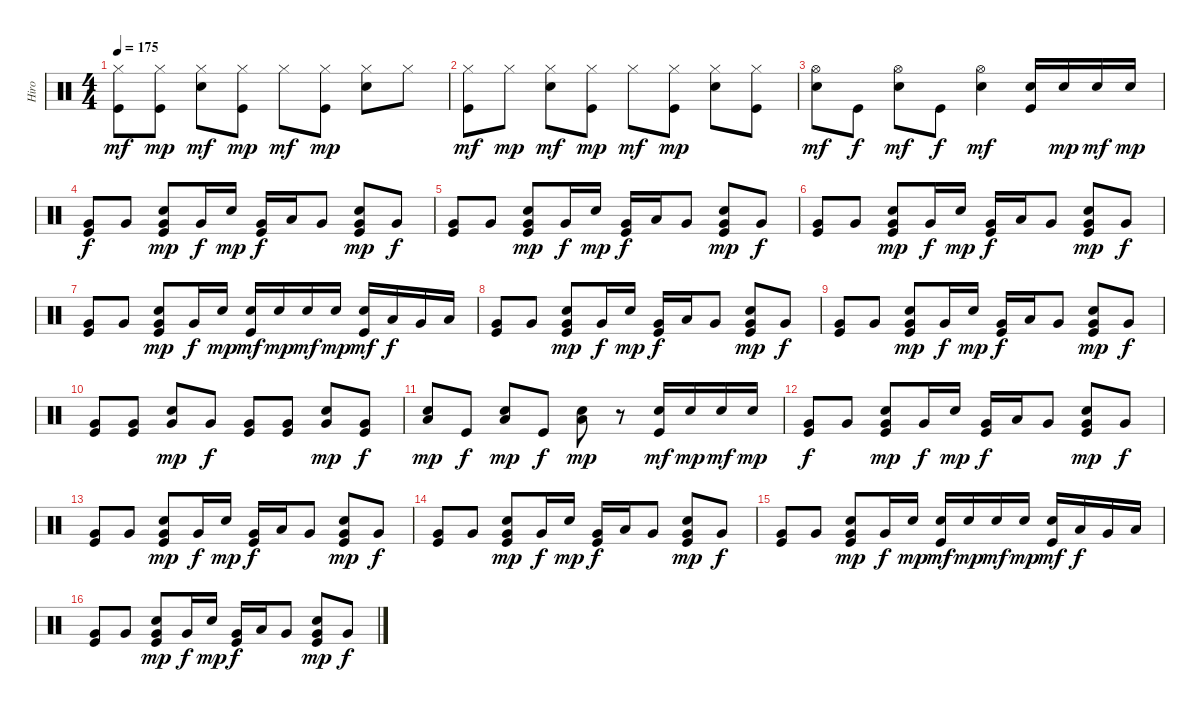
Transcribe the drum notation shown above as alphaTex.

\track ("Hiro" "Hiro") {instrument percussion}
\staff {score}
\articulation defaults
\ts (4 4)
\tempo 175
\clef neutral
\ks c
("Hi-Hat (closed)" "Kick (hit)").8{dy mf} ("Hi-Hat (closed)" "Kick (hit)").8{dy mp} ("Hi-Hat (closed)" "Electric Snare (hit)").8{dy mf} ("Hi-Hat (closed)" "Kick (hit)").8{dy mp} "Hi-Hat (closed)".8{dy mf} ("Hi-Hat (closed)" "Kick (hit)").8{dy mp} ("Hi-Hat (closed)" "Electric Snare (hit)").8 "Hi-Hat (closed)".8 |
("Hi-Hat (closed)" "Kick (hit)").8{dy mf} "Hi-Hat (closed)".8{dy mp} ("Hi-Hat (closed)" "Electric Snare (hit)").8{dy mf} ("Hi-Hat (closed)" "Kick (hit)").8{dy mp} "Hi-Hat (closed)".8{dy mf} ("Hi-Hat (closed)" "Kick (hit)").8{dy mp} ("Hi-Hat (closed)" "Electric Snare (hit)").8 ("Hi-Hat (closed)" "Kick (hit)").8 |
("Electric Snare (hit)" "Hi-Hat (open)").8{dy mf} "Kick (hit)".8{dy f} ("Electric Snare (hit)" "Hi-Hat (open)").8{dy mf} "Kick (hit)".8{dy f} ("Electric Snare (hit)" "Hi-Hat (open)").4{dy mf} ("Electric Snare (hit)" "Kick (hit)").16 "Electric Snare (hit)".16{dy mp} "Electric Snare (hit)".16{dy mf} "Electric Snare (hit)".16{dy mp} |
("Kick (hit)" "Very Low Tom (hit)").8{dy f} "Very Low Tom (hit)".8 ("Very Low Tom (hit)" "Electric Snare (hit)" "Kick (hit)").8{dy mp} "Very Low Tom (hit)".16{dy f} "Electric Snare (hit)".16{dy mp} ("Very Low Tom (hit)" "Kick (hit)").16{dy f} "Low Tom (hit)".16 "Very Low Tom (hit)".8 ("Very Low Tom (hit)" "Electric Snare (hit)" "Kick (hit)").8{dy mp} "Very Low Tom (hit)".8{dy f} |
("Kick (hit)" "Very Low Tom (hit)").8 "Very Low Tom (hit)".8 ("Very Low Tom (hit)" "Electric Snare (hit)" "Kick (hit)").8{dy mp} "Very Low Tom (hit)".16{dy f} "Electric Snare (hit)".16{dy mp} ("Very Low Tom (hit)" "Kick (hit)").16{dy f} "Low Tom (hit)".16 "Very Low Tom (hit)".8 ("Very Low Tom (hit)" "Electric Snare (hit)" "Kick (hit)").8{dy mp} "Very Low Tom (hit)".8{dy f} |
("Kick (hit)" "Very Low Tom (hit)").8 "Very Low Tom (hit)".8 ("Very Low Tom (hit)" "Electric Snare (hit)" "Kick (hit)").8{dy mp} "Very Low Tom (hit)".16{dy f} "Electric Snare (hit)".16{dy mp} ("Very Low Tom (hit)" "Kick (hit)").16{dy f} "Low Tom (hit)".16 "Very Low Tom (hit)".8 ("Very Low Tom (hit)" "Electric Snare (hit)" "Kick (hit)").8{dy mp} "Very Low Tom (hit)".8{dy f} |
("Kick (hit)" "Very Low Tom (hit)").8 "Very Low Tom (hit)".8 ("Very Low Tom (hit)" "Electric Snare (hit)" "Kick (hit)").8{dy mp} "Very Low Tom (hit)".16{dy f} "Electric Snare (hit)".16{dy mp} ("Electric Snare (hit)" "Kick (hit)").16{dy mf} "Electric Snare (hit)".16{dy mp} "Electric Snare (hit)".16{dy mf} "Electric Snare (hit)".16{dy mp} ("Electric Snare (hit)" "Kick (hit)").16{dy mf} "Low Tom (hit)".16{dy f} "Very Low Tom (hit)".16 "Low Floor Tom (hit)".16 |
("Kick (hit)" "Very Low Tom (hit)").8 "Very Low Tom (hit)".8 ("Very Low Tom (hit)" "Electric Snare (hit)" "Kick (hit)").8{dy mp} "Very Low Tom (hit)".16{dy f} "Electric Snare (hit)".16{dy mp} ("Very Low Tom (hit)" "Kick (hit)").16{dy f} "Low Tom (hit)".16 "Very Low Tom (hit)".8 ("Very Low Tom (hit)" "Electric Snare (hit)" "Kick (hit)").8{dy mp} "Very Low Tom (hit)".8{dy f} |
("Kick (hit)" "Very Low Tom (hit)").8 "Very Low Tom (hit)".8 ("Very Low Tom (hit)" "Electric Snare (hit)" "Kick (hit)").8{dy mp} "Very Low Tom (hit)".16{dy f} "Electric Snare (hit)".16{dy mp} ("Very Low Tom (hit)" "Kick (hit)").16{dy f} "Low Tom (hit)".16 "Very Low Tom (hit)".8 ("Very Low Tom (hit)" "Electric Snare (hit)" "Kick (hit)").8{dy mp} "Very Low Tom (hit)".8{dy f} |
("Kick (hit)" "Very Low Tom (hit)").8 ("Kick (hit)" "Very Low Tom (hit)").8 ("Very Low Tom (hit)" "Electric Snare (hit)").8{dy mp} "Very Low Tom (hit)".8{dy f} ("Kick (hit)" "Very Low Tom (hit)").8 ("Kick (hit)" "Very Low Tom (hit)").8 ("Very Low Tom (hit)" "Electric Snare (hit)").8{dy mp} ("Kick (hit)" "Very Low Tom (hit)").8{dy f} |
("Low Floor Tom (hit)" "Electric Snare (hit)").8{dy mp} "Kick (hit)".8{dy f} ("Low Floor Tom (hit)" "Electric Snare (hit)").8{dy mp} "Kick (hit)".8{dy f} ("Low Floor Tom (hit)" "Electric Snare (hit)").8{dy mp} r.8 ("Electric Snare (hit)" "Kick (hit)").16{dy mf} "Electric Snare (hit)".16{dy mp} "Electric Snare (hit)".16{dy mf} "Electric Snare (hit)".16{dy mp} |
("Kick (hit)" "Very Low Tom (hit)").8{dy f} "Very Low Tom (hit)".8 ("Very Low Tom (hit)" "Electric Snare (hit)" "Kick (hit)").8{dy mp} "Very Low Tom (hit)".16{dy f} "Electric Snare (hit)".16{dy mp} ("Very Low Tom (hit)" "Kick (hit)").16{dy f} "Low Tom (hit)".16 "Very Low Tom (hit)".8 ("Very Low Tom (hit)" "Electric Snare (hit)" "Kick (hit)").8{dy mp} "Very Low Tom (hit)".8{dy f} |
("Kick (hit)" "Very Low Tom (hit)").8 "Very Low Tom (hit)".8 ("Very Low Tom (hit)" "Electric Snare (hit)" "Kick (hit)").8{dy mp} "Very Low Tom (hit)".16{dy f} "Electric Snare (hit)".16{dy mp} ("Very Low Tom (hit)" "Kick (hit)").16{dy f} "Low Tom (hit)".16 "Very Low Tom (hit)".8 ("Very Low Tom (hit)" "Electric Snare (hit)" "Kick (hit)").8{dy mp} "Very Low Tom (hit)".8{dy f} |
("Kick (hit)" "Very Low Tom (hit)").8 "Very Low Tom (hit)".8 ("Very Low Tom (hit)" "Electric Snare (hit)" "Kick (hit)").8{dy mp} "Very Low Tom (hit)".16{dy f} "Electric Snare (hit)".16{dy mp} ("Very Low Tom (hit)" "Kick (hit)").16{dy f} "Low Tom (hit)".16 "Very Low Tom (hit)".8 ("Very Low Tom (hit)" "Electric Snare (hit)" "Kick (hit)").8{dy mp} "Very Low Tom (hit)".8{dy f} |
("Kick (hit)" "Very Low Tom (hit)").8 "Very Low Tom (hit)".8 ("Very Low Tom (hit)" "Electric Snare (hit)" "Kick (hit)").8{dy mp} "Very Low Tom (hit)".16{dy f} "Electric Snare (hit)".16{dy mp} ("Electric Snare (hit)" "Kick (hit)").16{dy mf} "Electric Snare (hit)".16{dy mp} "Electric Snare (hit)".16{dy mf} "Electric Snare (hit)".16{dy mp} ("Electric Snare (hit)" "Kick (hit)").16{dy mf} "Low Tom (hit)".16{dy f} "Very Low Tom (hit)".16 "Low Floor Tom (hit)".16 |
("Kick (hit)" "Very Low Tom (hit)").8 "Very Low Tom (hit)".8 ("Very Low Tom (hit)" "Electric Snare (hit)" "Kick (hit)").8{dy mp} "Very Low Tom (hit)".16{dy f} "Electric Snare (hit)".16{dy mp} ("Very Low Tom (hit)" "Kick (hit)").16{dy f} "Low Tom (hit)".16 "Very Low Tom (hit)".8 ("Very Low Tom (hit)" "Electric Snare (hit)" "Kick (hit)").8{dy mp} "Very Low Tom (hit)".8{dy f}
